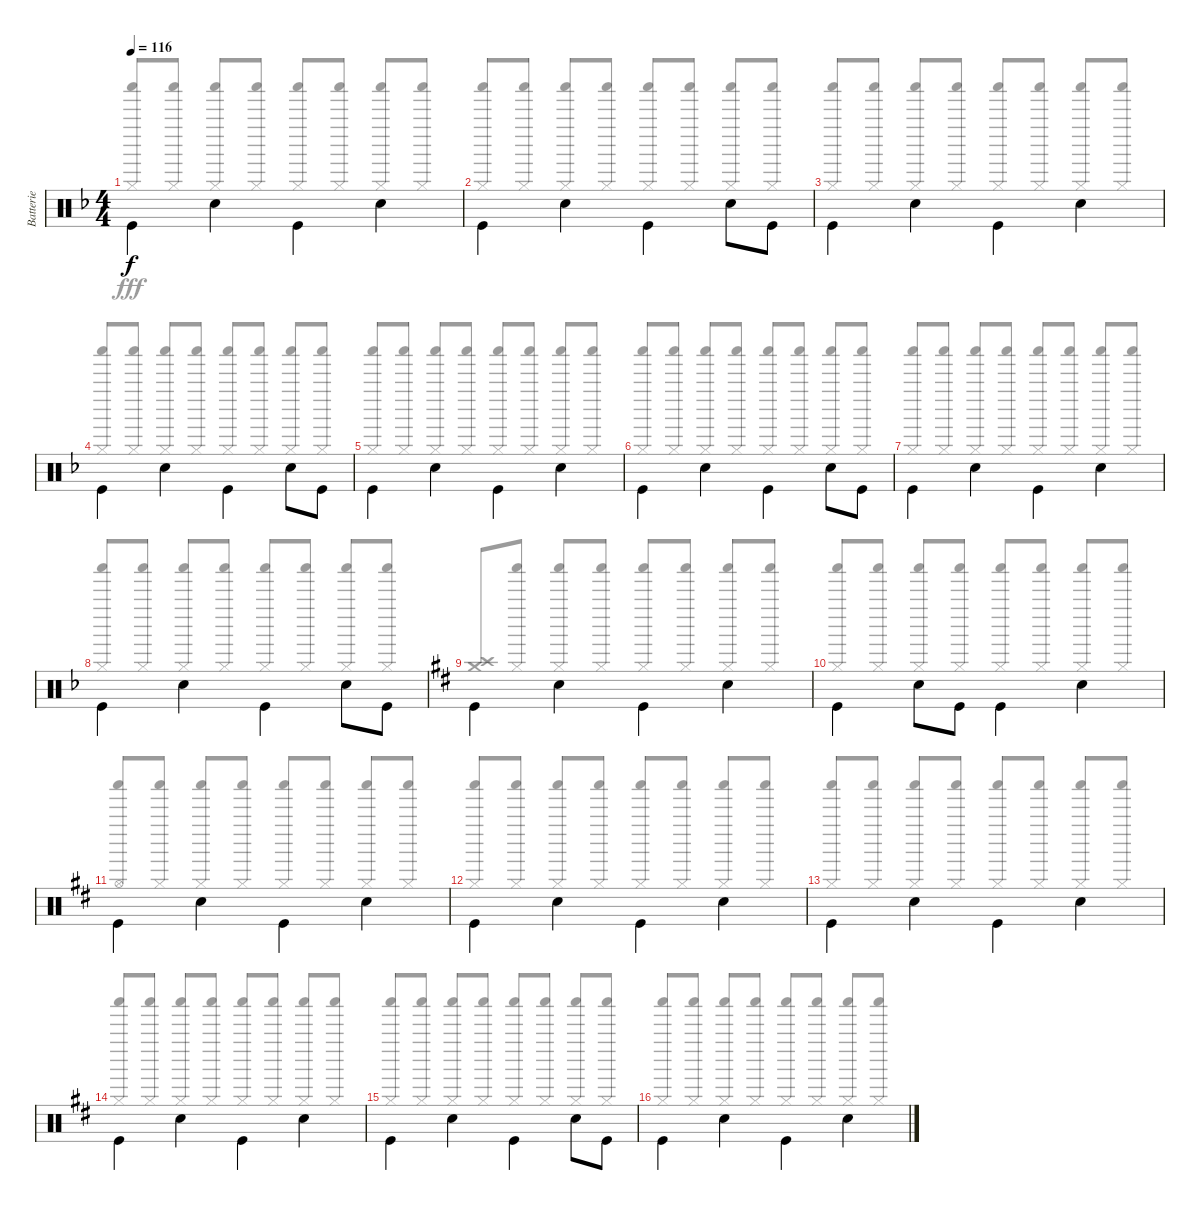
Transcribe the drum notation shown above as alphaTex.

\track ("Batterie" "Batterie") {instrument percussion}
\staff {score}
\articulation defaults
\voice
\ts (4 4)
\tempo 116
\clef neutral
\ks f "Kick (hit)".4{dy f beam Down} "Snare (hit) 2".4{beam Down} "Kick (hit)".4{beam Down} "Snare (hit) 2".4{beam Down}
|
"Kick (hit)".4{beam Down} "Snare (hit) 2".4{beam Down} "Kick (hit)".4{beam Down} "Snare (hit) 2".8{beam Down} "Kick (hit)".8{beam Down} |
"Kick (hit)".4{beam Down} "Snare (hit) 2".4{beam Down} "Kick (hit)".4{beam Down} "Snare (hit) 2".4{beam Down} |
"Kick (hit)".4{beam Down} "Snare (hit) 2".4{beam Down} "Kick (hit)".4{beam Down} "Snare (hit) 2".8{beam Down} "Kick (hit)".8{beam Down} |
"Kick (hit)".4{beam Down} "Snare (hit) 2".4{beam Down} "Kick (hit)".4{beam Down} "Snare (hit) 2".4{beam Down} |
"Kick (hit)".4{beam Down} "Snare (hit) 2".4{beam Down} "Kick (hit)".4{beam Down} "Snare (hit) 2".8{beam Down} "Kick (hit)".8{beam Down} |
"Kick (hit)".4{beam Down} "Snare (hit) 2".4{beam Down} "Kick (hit)".4{beam Down} "Snare (hit) 2".4{beam Down} |
"Kick (hit)".4{beam Down} "Snare (hit) 2".4{beam Down} "Kick (hit)".4{beam Down} "Snare (hit) 2".8{beam Down} "Kick (hit)".8{beam Down} |
\ks d "Kick (hit)".4{beam Down} "Snare (hit) 2".4{beam Down} "Kick (hit)".4{beam Down} "Snare (hit) 2".4{beam Down}
|
"Kick (hit)".4{beam Down} "Snare (hit) 2".8{beam Down} "Kick (hit)".8{beam Down} "Kick (hit)".4{beam Down} "Snare (hit) 2".4{beam Down} |
"Kick (hit)".4{beam Down} "Snare (hit) 2".4{beam Down} "Kick (hit)".4{beam Down} "Snare (hit) 2".4{beam Down} |
"Kick (hit)".4{beam Down} "Snare (hit) 2".4{beam Down} "Kick (hit)".4{beam Down} "Snare (hit) 2".4{beam Down} |
"Kick (hit)".4{beam Down} "Snare (hit) 2".4{beam Down} "Kick (hit)".4{beam Down} "Snare (hit) 2".4{beam Down} |
"Kick (hit)".4{beam Down} "Snare (hit) 2".4{beam Down} "Kick (hit)".4{beam Down} "Snare (hit) 2".4{beam Down} |
"Kick (hit)".4{beam Down} "Snare (hit) 2".4{beam Down} "Kick (hit)".4{beam Down} "Snare (hit) 2".8{beam Down} "Kick (hit)".8{beam Down} |
"Kick (hit)".4{beam Down} "Snare (hit) 2".4{beam Down} "Kick (hit)".4{beam Down} "Snare (hit) 2".4{beam Down}
\voice
\clef neutral
\ottava regular
\simile none
\ks f
("Shaker (hit)" "Hi-Hat (closed)").8{dy fff beam Up} ("Shaker (hit)" "Hi-Hat (closed)").8{beam Up} ("Shaker (hit)" "Hi-Hat (closed)").8{beam Up} ("Shaker (hit)" "Hi-Hat (closed)").8{beam Up} ("Shaker (hit)" "Hi-Hat (closed)").8{beam Up} ("Shaker (hit)" "Hi-Hat (closed)").8{beam Up} ("Shaker (hit)" "Hi-Hat (closed)").8{beam Up} ("Shaker (hit)" "Hi-Hat (closed)").8{beam Up} |
("Shaker (hit)" "Hi-Hat (closed)").8{beam Up} ("Shaker (hit)" "Hi-Hat (closed)").8{beam Up} ("Shaker (hit)" "Hi-Hat (closed)").8{beam Up} ("Shaker (hit)" "Hi-Hat (closed)").8{beam Up} ("Shaker (hit)" "Hi-Hat (closed)").8{beam Up} ("Shaker (hit)" "Hi-Hat (closed)").8{beam Up} ("Shaker (hit)" "Hi-Hat (closed)").8{beam Up} ("Shaker (hit)" "Hi-Hat (closed)").8{beam Up} |
("Shaker (hit)" "Hi-Hat (closed)").8{beam Up} ("Shaker (hit)" "Hi-Hat (closed)").8{beam Up} ("Shaker (hit)" "Hi-Hat (closed)").8{beam Up} ("Shaker (hit)" "Hi-Hat (closed)").8{beam Up} ("Shaker (hit)" "Hi-Hat (closed)").8{beam Up} ("Shaker (hit)" "Hi-Hat (closed)").8{beam Up} ("Shaker (hit)" "Hi-Hat (closed)").8{beam Up} ("Shaker (hit)" "Hi-Hat (closed)").8{beam Up} |
("Shaker (hit)" "Hi-Hat (closed)").8{beam Up} ("Shaker (hit)" "Hi-Hat (closed)").8{beam Up} ("Shaker (hit)" "Hi-Hat (closed)").8{beam Up} ("Shaker (hit)" "Hi-Hat (closed)").8{beam Up} ("Shaker (hit)" "Hi-Hat (closed)").8{beam Up} ("Shaker (hit)" "Hi-Hat (closed)").8{beam Up} ("Shaker (hit)" "Hi-Hat (closed)").8{beam Up} ("Shaker (hit)" "Hi-Hat (closed)").8{beam Up} |
("Shaker (hit)" "Hi-Hat (closed)").8{beam Up} ("Shaker (hit)" "Hi-Hat (closed)").8{beam Up} ("Shaker (hit)" "Hi-Hat (closed)").8{beam Up} ("Shaker (hit)" "Hi-Hat (closed)").8{beam Up} ("Shaker (hit)" "Hi-Hat (closed)").8{beam Up} ("Shaker (hit)" "Hi-Hat (closed)").8{beam Up} ("Shaker (hit)" "Hi-Hat (closed)").8{beam Up} ("Shaker (hit)" "Hi-Hat (closed)").8{beam Up} |
("Shaker (hit)" "Hi-Hat (closed)").8{beam Up} ("Shaker (hit)" "Hi-Hat (closed)").8{beam Up} ("Shaker (hit)" "Hi-Hat (closed)").8{beam Up} ("Shaker (hit)" "Hi-Hat (closed)").8{beam Up} ("Shaker (hit)" "Hi-Hat (closed)").8{beam Up} ("Shaker (hit)" "Hi-Hat (closed)").8{beam Up} ("Shaker (hit)" "Hi-Hat (closed)").8{beam Up} ("Shaker (hit)" "Hi-Hat (closed)").8{beam Up} |
("Shaker (hit)" "Hi-Hat (closed)").8{beam Up} ("Shaker (hit)" "Hi-Hat (closed)").8{beam Up} ("Shaker (hit)" "Hi-Hat (closed)").8{beam Up} ("Shaker (hit)" "Hi-Hat (closed)").8{beam Up} ("Shaker (hit)" "Hi-Hat (closed)").8{beam Up} ("Shaker (hit)" "Hi-Hat (closed)").8{beam Up} ("Shaker (hit)" "Hi-Hat (closed)").8{beam Up} ("Shaker (hit)" "Hi-Hat (closed)").8{beam Up} |
("Shaker (hit)" "Hi-Hat (closed)").8{beam Up} ("Shaker (hit)" "Hi-Hat (closed)").8{beam Up} ("Shaker (hit)" "Hi-Hat (closed)").8{beam Up} ("Shaker (hit)" "Hi-Hat (closed)").8{beam Up} ("Shaker (hit)" "Hi-Hat (closed)").8{beam Up} ("Shaker (hit)" "Hi-Hat (closed)").8{beam Up} ("Shaker (hit)" "Hi-Hat (closed)").8{beam Up} ("Shaker (hit)" "Hi-Hat (closed)").8{beam Up} |
\ks d
("Crash medium (hit)" "Crash high (hit)").8{beam Up} ("Shaker (hit)" "Hi-Hat (closed)").8{beam Up} ("Shaker (hit)" "Hi-Hat (closed)").8{beam Up} ("Shaker (hit)" "Hi-Hat (closed)").8{beam Up} ("Shaker (hit)" "Hi-Hat (closed)").8{beam Up} ("Shaker (hit)" "Hi-Hat (closed)").8{beam Up} ("Shaker (hit)" "Hi-Hat (closed)").8{beam Up} ("Shaker (hit)" "Hi-Hat (closed)").8{beam Up} |
("Shaker (hit)" "Hi-Hat (closed)").8{beam Up} ("Shaker (hit)" "Hi-Hat (closed)").8{beam Up} ("Shaker (hit)" "Hi-Hat (closed)").8{beam Up} ("Shaker (hit)" "Hi-Hat (closed)").8{beam Up} ("Shaker (hit)" "Hi-Hat (closed)").8{beam Up} ("Shaker (hit)" "Hi-Hat (closed)").8{beam Up} ("Shaker (hit)" "Hi-Hat (closed)").8{beam Up} ("Shaker (hit)" "Hi-Hat (closed)").8{beam Up} |
("Shaker (hit)" "Hi-Hat (open)").8{beam Up} ("Shaker (hit)" "Hi-Hat (closed)").8{beam Up} ("Shaker (hit)" "Hi-Hat (closed)").8{beam Up} ("Shaker (hit)" "Hi-Hat (closed)").8{beam Up} ("Shaker (hit)" "Hi-Hat (closed)").8{beam Up} ("Shaker (hit)" "Hi-Hat (closed)").8{beam Up} ("Shaker (hit)" "Hi-Hat (closed)").8{beam Up} ("Shaker (hit)" "Hi-Hat (closed)").8{beam Up} |
("Shaker (hit)" "Hi-Hat (closed)").8{beam Up} ("Shaker (hit)" "Hi-Hat (closed)").8{beam Up} ("Shaker (hit)" "Hi-Hat (closed)").8{beam Up} ("Shaker (hit)" "Hi-Hat (closed)").8{beam Up} ("Shaker (hit)" "Hi-Hat (closed)").8{beam Up} ("Shaker (hit)" "Hi-Hat (closed)").8{beam Up} ("Shaker (hit)" "Hi-Hat (closed)").8{beam Up} ("Shaker (hit)" "Hi-Hat (closed)").8{beam Up} |
("Shaker (hit)" "Hi-Hat (closed)").8{beam Up} ("Shaker (hit)" "Hi-Hat (closed)").8{beam Up} ("Shaker (hit)" "Hi-Hat (closed)").8{beam Up} ("Shaker (hit)" "Hi-Hat (closed)").8{beam Up} ("Shaker (hit)" "Hi-Hat (closed)").8{beam Up} ("Shaker (hit)" "Hi-Hat (closed)").8{beam Up} ("Shaker (hit)" "Hi-Hat (closed)").8{beam Up} ("Shaker (hit)" "Hi-Hat (closed)").8{beam Up} |
("Shaker (hit)" "Hi-Hat (closed)").8{beam Up} ("Shaker (hit)" "Hi-Hat (closed)").8{beam Up} ("Shaker (hit)" "Hi-Hat (closed)").8{beam Up} ("Shaker (hit)" "Hi-Hat (closed)").8{beam Up} ("Shaker (hit)" "Hi-Hat (closed)").8{beam Up} ("Shaker (hit)" "Hi-Hat (closed)").8{beam Up} ("Shaker (hit)" "Hi-Hat (closed)").8{beam Up} ("Shaker (hit)" "Hi-Hat (closed)").8{beam Up} |
("Shaker (hit)" "Hi-Hat (closed)").8{beam Up} ("Shaker (hit)" "Hi-Hat (closed)").8{beam Up} ("Shaker (hit)" "Hi-Hat (closed)").8{beam Up} ("Shaker (hit)" "Hi-Hat (closed)").8{beam Up} ("Shaker (hit)" "Hi-Hat (closed)").8{beam Up} ("Shaker (hit)" "Hi-Hat (closed)").8{beam Up} ("Shaker (hit)" "Hi-Hat (closed)").8{beam Up} ("Shaker (hit)" "Hi-Hat (closed)").8{beam Up} |
("Shaker (hit)" "Hi-Hat (closed)").8{beam Up} ("Shaker (hit)" "Hi-Hat (closed)").8{beam Up} ("Shaker (hit)" "Hi-Hat (closed)").8{beam Up} ("Shaker (hit)" "Hi-Hat (closed)").8{beam Up} ("Shaker (hit)" "Hi-Hat (closed)").8{beam Up} ("Shaker (hit)" "Hi-Hat (closed)").8{beam Up} ("Shaker (hit)" "Hi-Hat (closed)").8{beam Up} ("Shaker (hit)" "Hi-Hat (closed)").8{beam Up}
